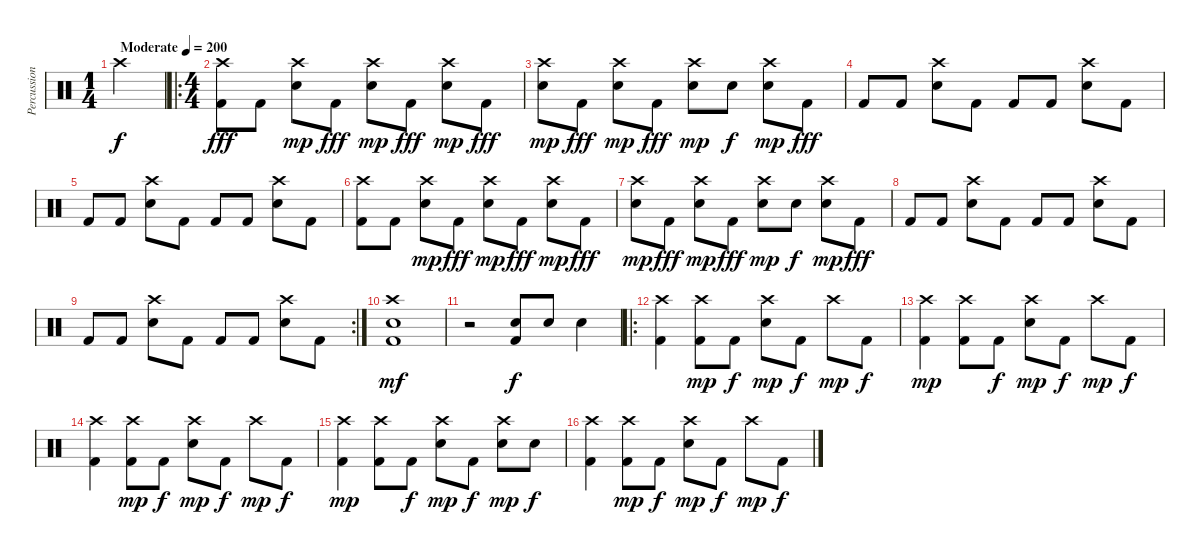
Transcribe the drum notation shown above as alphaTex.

\track ("Percussion" "Percussion") {instrument percussion}
\staff {score}
\articulation defaults
\ts (1 4)
\tempo (200 "Moderate")
\clef neutral
\ks c "Crash high (hit)".4{dy f}
|
\ro
\ts (4 4)
("Crash high (hit)" "Kick (hit) 2").8{dy fff} "Kick (hit) 2".8 ("Crash high (hit)" "Electric Snare (hit)").8{dy mp} "Kick (hit) 2".8{dy fff} ("Crash high (hit)" "Electric Snare (hit)").8{dy mp} "Kick (hit) 2".8{dy fff} ("Crash high (hit)" "Electric Snare (hit)").8{dy mp} "Kick (hit) 2".8{dy fff} |
("Crash high (hit)" "Electric Snare (hit)").8{dy mp} "Kick (hit) 2".8{dy fff} ("Crash high (hit)" "Electric Snare (hit)").8{dy mp} "Kick (hit) 2".8{dy fff} ("Crash high (hit)" "Electric Snare (hit)").8{dy mp} "Electric Snare (hit)".8{dy f} ("Crash high (hit)" "Electric Snare (hit)").8{dy mp} "Kick (hit) 2".8{dy fff} |
"Kick (hit) 2".8 "Kick (hit) 2".8 ("Crash high (hit)" "Electric Snare (hit)").8 "Kick (hit) 2".8 "Kick (hit) 2".8 "Kick (hit) 2".8 ("Crash high (hit)" "Electric Snare (hit)").8 "Kick (hit) 2".8 |
"Kick (hit) 2".8 "Kick (hit) 2".8 ("Crash high (hit)" "Electric Snare (hit)").8 "Kick (hit) 2".8 "Kick (hit) 2".8 "Kick (hit) 2".8 ("Crash high (hit)" "Electric Snare (hit)").8 "Kick (hit) 2".8 |
("Crash high (hit)" "Kick (hit) 2").8 "Kick (hit) 2".8 ("Crash high (hit)" "Electric Snare (hit)").8{dy mp} "Kick (hit) 2".8{dy fff} ("Crash high (hit)" "Electric Snare (hit)").8{dy mp} "Kick (hit) 2".8{dy fff} ("Crash high (hit)" "Electric Snare (hit)").8{dy mp} "Kick (hit) 2".8{dy fff} |
("Crash high (hit)" "Electric Snare (hit)").8{dy mp} "Kick (hit) 2".8{dy fff} ("Crash high (hit)" "Electric Snare (hit)").8{dy mp} "Kick (hit) 2".8{dy fff} ("Crash high (hit)" "Electric Snare (hit)").8{dy mp} "Electric Snare (hit)".8{dy f} ("Crash high (hit)" "Electric Snare (hit)").8{dy mp} "Kick (hit) 2".8{dy fff} |
"Kick (hit) 2".8 "Kick (hit) 2".8 ("Crash high (hit)" "Electric Snare (hit)").8 "Kick (hit) 2".8 "Kick (hit) 2".8 "Kick (hit) 2".8 ("Crash high (hit)" "Electric Snare (hit)").8 "Kick (hit) 2".8 |
\rc 2 "Kick (hit) 2".8 "Kick (hit) 2".8
("Crash high (hit)" "Electric Snare (hit)").8 "Kick (hit) 2".8 "Kick (hit) 2".8 "Kick (hit) 2".8 ("Crash high (hit)" "Electric Snare (hit)").8 "Kick (hit) 2".8 |
("Crash high (hit)" "Electric Snare (hit)" "Kick (hit) 2").1{dy mf} |
r.2 ("Electric Snare (hit)" "Kick (hit) 2").8{dy f} "Electric Snare (hit)".8 "Electric Snare (hit)".4 |
\ro
("Crash high (hit)" "Kick (hit) 2").4 ("Crash high (hit)" "Kick (hit) 2").8{dy mp} "Kick (hit) 2".8{dy f} ("Crash high (hit)" "Electric Snare (hit)").8{dy mp} "Kick (hit) 2".8{dy f} "Crash high (hit)".8{dy mp} "Kick (hit) 2".8{dy f} |
("Crash high (hit)" "Kick (hit) 2").4{dy mp} ("Crash high (hit)" "Kick (hit) 2").8 "Kick (hit) 2".8{dy f} ("Crash high (hit)" "Electric Snare (hit)").8{dy mp} "Kick (hit) 2".8{dy f} "Crash high (hit)".8{dy mp} "Kick (hit) 2".8{dy f} |
("Crash high (hit)" "Kick (hit) 2").4 ("Crash high (hit)" "Kick (hit) 2").8{dy mp} "Kick (hit) 2".8{dy f} ("Crash high (hit)" "Electric Snare (hit)").8{dy mp} "Kick (hit) 2".8{dy f} "Crash high (hit)".8{dy mp} "Kick (hit) 2".8{dy f} |
("Crash high (hit)" "Kick (hit) 2").4{dy mp} ("Crash high (hit)" "Kick (hit) 2").8 "Kick (hit) 2".8{dy f} ("Crash high (hit)" "Electric Snare (hit)").8{dy mp} "Kick (hit) 2".8{dy f} ("Crash high (hit)" "Electric Snare (hit)").8{dy mp} "Electric Snare (hit)".8{dy f} |
("Crash high (hit)" "Kick (hit) 2").4 ("Crash high (hit)" "Kick (hit) 2").8{dy mp} "Kick (hit) 2".8{dy f} ("Crash high (hit)" "Electric Snare (hit)").8{dy mp} "Kick (hit) 2".8{dy f} "Crash high (hit)".8{dy mp} "Kick (hit) 2".8{dy f}
